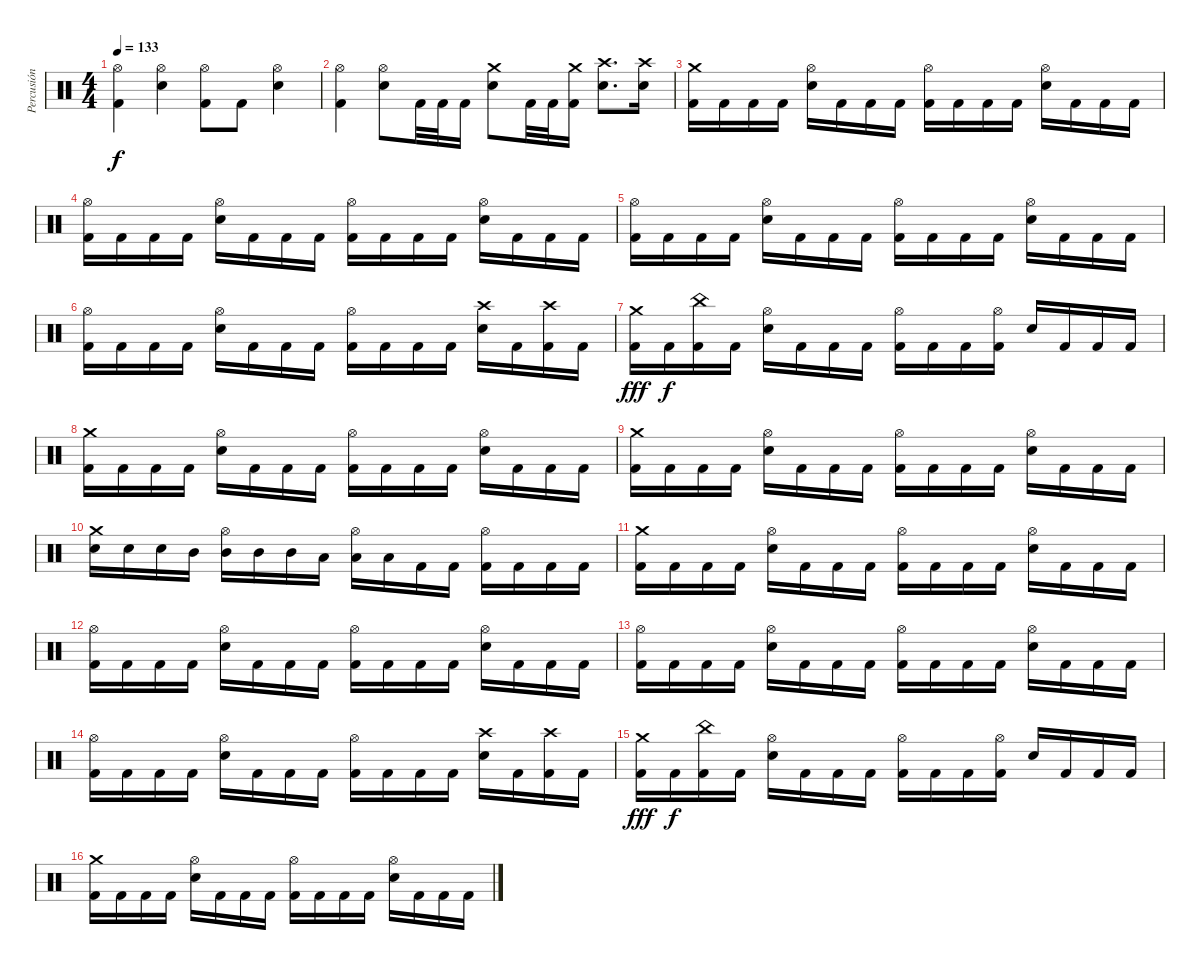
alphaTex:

\track ("Percusión" "Percusión") {instrument percussion}
\staff {score}
\articulation defaults
\ts (4 4)
\tempo 133
\clef neutral
\ks c
("Hi-Hat (open)" "Kick (hit) 2").4{dy f} ("Hi-Hat (open)" "Snare (hit) 2").4 ("Hi-Hat (open)" "Kick (hit) 2").8 "Kick (hit) 2".8 ("Hi-Hat (open)" "Snare (hit) 2").4 |
("Hi-Hat (open)" "Kick (hit) 2").4 ("Hi-Hat (open)" "Snare (hit) 2").8 "Kick (hit) 2".32 "Kick (hit) 2".32 "Kick (hit) 2".16 ("Crash medium (hit)" "Snare (hit) 2").8 "Kick (hit) 2".32 "Kick (hit) 2".32 ("Crash medium (hit)" "Kick (hit) 2").16 ("Crash high (hit)" "Snare (hit) 2").8{d} ("Crash high (hit)" "Snare (hit) 2").16 |
("Crash medium (hit)" "Kick (hit) 2").16 "Kick (hit) 2".16 "Kick (hit) 2".16 "Kick (hit) 2".16 ("Hi-Hat (open)" "Snare (hit) 2").16 "Kick (hit) 2".16 "Kick (hit) 2".16 "Kick (hit) 2".16 ("Hi-Hat (open)" "Kick (hit) 2").16 "Kick (hit) 2".16 "Kick (hit) 2".16 "Kick (hit) 2".16 ("Hi-Hat (open)" "Snare (hit) 2").16 "Kick (hit) 2".16 "Kick (hit) 2".16 "Kick (hit) 2".16 |
("Hi-Hat (open)" "Kick (hit) 2").16 "Kick (hit) 2".16 "Kick (hit) 2".16 "Kick (hit) 2".16 ("Hi-Hat (open)" "Snare (hit) 2").16 "Kick (hit) 2".16 "Kick (hit) 2".16 "Kick (hit) 2".16 ("Hi-Hat (open)" "Kick (hit) 2").16 "Kick (hit) 2".16 "Kick (hit) 2".16 "Kick (hit) 2".16 ("Hi-Hat (open)" "Snare (hit) 2").16 "Kick (hit) 2".16 "Kick (hit) 2".16 "Kick (hit) 2".16 |
("Hi-Hat (open)" "Kick (hit) 2").16 "Kick (hit) 2".16 "Kick (hit) 2".16 "Kick (hit) 2".16 ("Hi-Hat (open)" "Snare (hit) 2").16 "Kick (hit) 2".16 "Kick (hit) 2".16 "Kick (hit) 2".16 ("Hi-Hat (open)" "Kick (hit) 2").16 "Kick (hit) 2".16 "Kick (hit) 2".16 "Kick (hit) 2".16 ("Hi-Hat (open)" "Snare (hit) 2").16 "Kick (hit) 2".16 "Kick (hit) 2".16 "Kick (hit) 2".16 |
("Hi-Hat (open)" "Kick (hit) 2").16 "Kick (hit) 2".16 "Kick (hit) 2".16 "Kick (hit) 2".16 ("Hi-Hat (open)" "Snare (hit) 2").16 "Kick (hit) 2".16 "Kick (hit) 2".16 "Kick (hit) 2".16 ("Hi-Hat (open)" "Kick (hit) 2").16 "Kick (hit) 2".16 "Kick (hit) 2".16 "Kick (hit) 2".16 ("Crash high (hit)" "Snare (hit) 2").16 "Kick (hit) 2".16 ("Crash high (hit)" "Kick (hit) 2").16 "Kick (hit) 2".16 |
("Crash medium (hit)" "Kick (hit) 2").16{dy fff} "Kick (hit) 2".16{dy f} ("China (hit)" "Kick (hit) 2").16 "Kick (hit) 2".16 ("Hi-Hat (open)" "Snare (hit) 2").16 "Kick (hit) 2".16 "Kick (hit) 2".16 "Kick (hit) 2".16 ("Hi-Hat (open)" "Kick (hit) 2").16 "Kick (hit) 2".16 "Kick (hit) 2".16 ("Hi-Hat (open)" "Kick (hit) 2").16 "Snare (hit) 2".16 "Kick (hit) 2".16 "Kick (hit) 2".16 "Kick (hit) 2".16 |
("Crash medium (hit)" "Kick (hit) 2").16 "Kick (hit) 2".16 "Kick (hit) 2".16 "Kick (hit) 2".16 ("Hi-Hat (open)" "Snare (hit) 2").16 "Kick (hit) 2".16 "Kick (hit) 2".16 "Kick (hit) 2".16 ("Hi-Hat (open)" "Kick (hit) 2").16 "Kick (hit) 2".16 "Kick (hit) 2".16 "Kick (hit) 2".16 ("Hi-Hat (open)" "Snare (hit) 2").16 "Kick (hit) 2".16 "Kick (hit) 2".16 "Kick (hit) 2".16 |
("Crash medium (hit)" "Kick (hit) 2").16 "Kick (hit) 2".16 "Kick (hit) 2".16 "Kick (hit) 2".16 ("Hi-Hat (open)" "Snare (hit) 2").16 "Kick (hit) 2".16 "Kick (hit) 2".16 "Kick (hit) 2".16 ("Hi-Hat (open)" "Kick (hit) 2").16 "Kick (hit) 2".16 "Kick (hit) 2".16 "Kick (hit) 2".16 ("Hi-Hat (open)" "Snare (hit) 2").16 "Kick (hit) 2".16 "Kick (hit) 2".16 "Kick (hit) 2".16 |
("Crash medium (hit)" "Snare (hit) 2").16 "Snare (hit) 2".16 "Snare (hit) 2".16 "Mid Tom (hit)".16 ("Hi-Hat (open)" "Mid Tom (hit)").16 "Mid Tom (hit)".16 "Mid Tom (hit)".16 "Low Tom (hit)".16 ("Hi-Hat (open)" "Low Tom (hit)").16 "Low Tom (hit)".16 "Kick (hit) 2".16 "Kick (hit) 2".16 ("Hi-Hat (open)" "Kick (hit) 2").16 "Kick (hit) 2".16 "Kick (hit) 2".16 "Kick (hit) 2".16 |
("Crash medium (hit)" "Kick (hit) 2").16 "Kick (hit) 2".16 "Kick (hit) 2".16 "Kick (hit) 2".16 ("Hi-Hat (open)" "Snare (hit) 2").16 "Kick (hit) 2".16 "Kick (hit) 2".16 "Kick (hit) 2".16 ("Hi-Hat (open)" "Kick (hit) 2").16 "Kick (hit) 2".16 "Kick (hit) 2".16 "Kick (hit) 2".16 ("Hi-Hat (open)" "Snare (hit) 2").16 "Kick (hit) 2".16 "Kick (hit) 2".16 "Kick (hit) 2".16 |
("Hi-Hat (open)" "Kick (hit) 2").16 "Kick (hit) 2".16 "Kick (hit) 2".16 "Kick (hit) 2".16 ("Hi-Hat (open)" "Snare (hit) 2").16 "Kick (hit) 2".16 "Kick (hit) 2".16 "Kick (hit) 2".16 ("Hi-Hat (open)" "Kick (hit) 2").16 "Kick (hit) 2".16 "Kick (hit) 2".16 "Kick (hit) 2".16 ("Hi-Hat (open)" "Snare (hit) 2").16 "Kick (hit) 2".16 "Kick (hit) 2".16 "Kick (hit) 2".16 |
("Hi-Hat (open)" "Kick (hit) 2").16 "Kick (hit) 2".16 "Kick (hit) 2".16 "Kick (hit) 2".16 ("Hi-Hat (open)" "Snare (hit) 2").16 "Kick (hit) 2".16 "Kick (hit) 2".16 "Kick (hit) 2".16 ("Hi-Hat (open)" "Kick (hit) 2").16 "Kick (hit) 2".16 "Kick (hit) 2".16 "Kick (hit) 2".16 ("Hi-Hat (open)" "Snare (hit) 2").16 "Kick (hit) 2".16 "Kick (hit) 2".16 "Kick (hit) 2".16 |
("Hi-Hat (open)" "Kick (hit) 2").16 "Kick (hit) 2".16 "Kick (hit) 2".16 "Kick (hit) 2".16 ("Hi-Hat (open)" "Snare (hit) 2").16 "Kick (hit) 2".16 "Kick (hit) 2".16 "Kick (hit) 2".16 ("Hi-Hat (open)" "Kick (hit) 2").16 "Kick (hit) 2".16 "Kick (hit) 2".16 "Kick (hit) 2".16 ("Crash high (hit)" "Snare (hit) 2").16 "Kick (hit) 2".16 ("Crash high (hit)" "Kick (hit) 2").16 "Kick (hit) 2".16 |
("Crash medium (hit)" "Kick (hit) 2").16{dy fff} "Kick (hit) 2".16{dy f} ("China (hit)" "Kick (hit) 2").16 "Kick (hit) 2".16 ("Hi-Hat (open)" "Snare (hit) 2").16 "Kick (hit) 2".16 "Kick (hit) 2".16 "Kick (hit) 2".16 ("Hi-Hat (open)" "Kick (hit) 2").16 "Kick (hit) 2".16 "Kick (hit) 2".16 ("Hi-Hat (open)" "Kick (hit) 2").16 "Snare (hit) 2".16 "Kick (hit) 2".16 "Kick (hit) 2".16 "Kick (hit) 2".16 |
("Crash medium (hit)" "Kick (hit) 2").16 "Kick (hit) 2".16 "Kick (hit) 2".16 "Kick (hit) 2".16 ("Hi-Hat (open)" "Snare (hit) 2").16 "Kick (hit) 2".16 "Kick (hit) 2".16 "Kick (hit) 2".16 ("Hi-Hat (open)" "Kick (hit) 2").16 "Kick (hit) 2".16 "Kick (hit) 2".16 "Kick (hit) 2".16 ("Hi-Hat (open)" "Snare (hit) 2").16 "Kick (hit) 2".16 "Kick (hit) 2".16 "Kick (hit) 2".16
